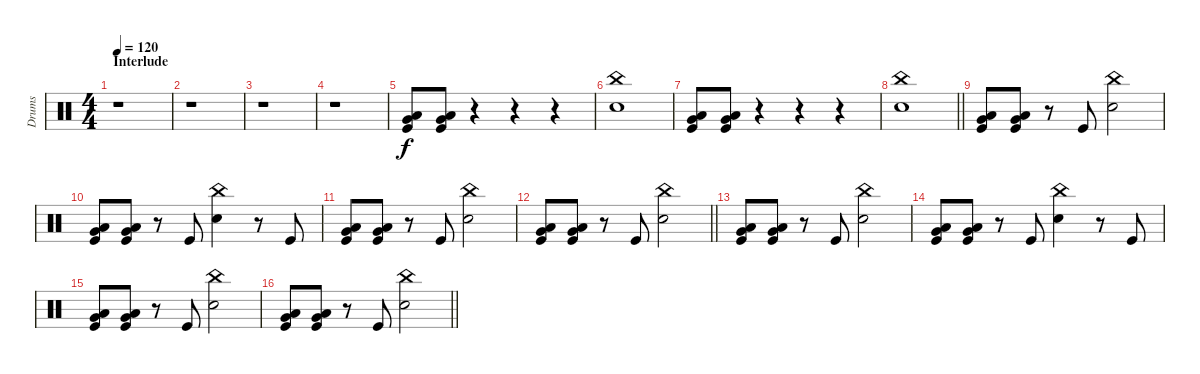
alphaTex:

\track ("Drums" "Drums") {instrument percussion}
\staff {score}
\articulation defaults
\ts (4 4)
\section ("" "Interlude")
\tempo 120
\clef neutral
\ks c
r.1{dy f} |
r.1 |
r.1 |
r.1 |
("Very Low Tom (hit)" "Low Floor Tom (hit)" "Kick (hit)").8 ("Very Low Tom (hit)" "Low Floor Tom (hit)" "Kick (hit)").8 r.4 r.4 r.4 |
("China (hit)" "Electric Snare (hit)").1 |
("Very Low Tom (hit)" "Low Floor Tom (hit)" "Kick (hit)").8 ("Very Low Tom (hit)" "Low Floor Tom (hit)" "Kick (hit)").8 r.4 r.4 r.4 |
\barLineRight lightlight
("China (hit)" "Electric Snare (hit)").1 |
("Very Low Tom (hit)" "Low Floor Tom (hit)" "Kick (hit)").8 ("Very Low Tom (hit)" "Low Floor Tom (hit)" "Kick (hit)").8 r.8 "Kick (hit)".8 ("China (hit)" "Electric Snare (hit)").2 |
("Very Low Tom (hit)" "Low Floor Tom (hit)" "Kick (hit)").8 ("Very Low Tom (hit)" "Low Floor Tom (hit)" "Kick (hit)").8 r.8 "Kick (hit)".8 ("China (hit)" "Electric Snare (hit)").4 r.8 "Kick (hit)".8 |
("Very Low Tom (hit)" "Low Floor Tom (hit)" "Kick (hit)").8 ("Very Low Tom (hit)" "Low Floor Tom (hit)" "Kick (hit)").8 r.8 "Kick (hit)".8 ("China (hit)" "Electric Snare (hit)").2 |
\barLineRight lightlight
("Very Low Tom (hit)" "Low Floor Tom (hit)" "Kick (hit)").8 ("Very Low Tom (hit)" "Low Floor Tom (hit)" "Kick (hit)").8 r.8 "Kick (hit)".8 ("China (hit)" "Electric Snare (hit)").2 |
("Very Low Tom (hit)" "Low Floor Tom (hit)" "Kick (hit)").8 ("Very Low Tom (hit)" "Low Floor Tom (hit)" "Kick (hit)").8 r.8 "Kick (hit)".8 ("China (hit)" "Electric Snare (hit)").2 |
("Very Low Tom (hit)" "Low Floor Tom (hit)" "Kick (hit)").8 ("Very Low Tom (hit)" "Low Floor Tom (hit)" "Kick (hit)").8 r.8 "Kick (hit)".8 ("China (hit)" "Electric Snare (hit)").4 r.8 "Kick (hit)".8 |
("Very Low Tom (hit)" "Low Floor Tom (hit)" "Kick (hit)").8 ("Very Low Tom (hit)" "Low Floor Tom (hit)" "Kick (hit)").8 r.8 "Kick (hit)".8 ("China (hit)" "Electric Snare (hit)").2 |
\barLineRight lightlight
("Very Low Tom (hit)" "Low Floor Tom (hit)" "Kick (hit)").8 ("Very Low Tom (hit)" "Low Floor Tom (hit)" "Kick (hit)").8 r.8 "Kick (hit)".8 ("China (hit)" "Electric Snare (hit)").2
